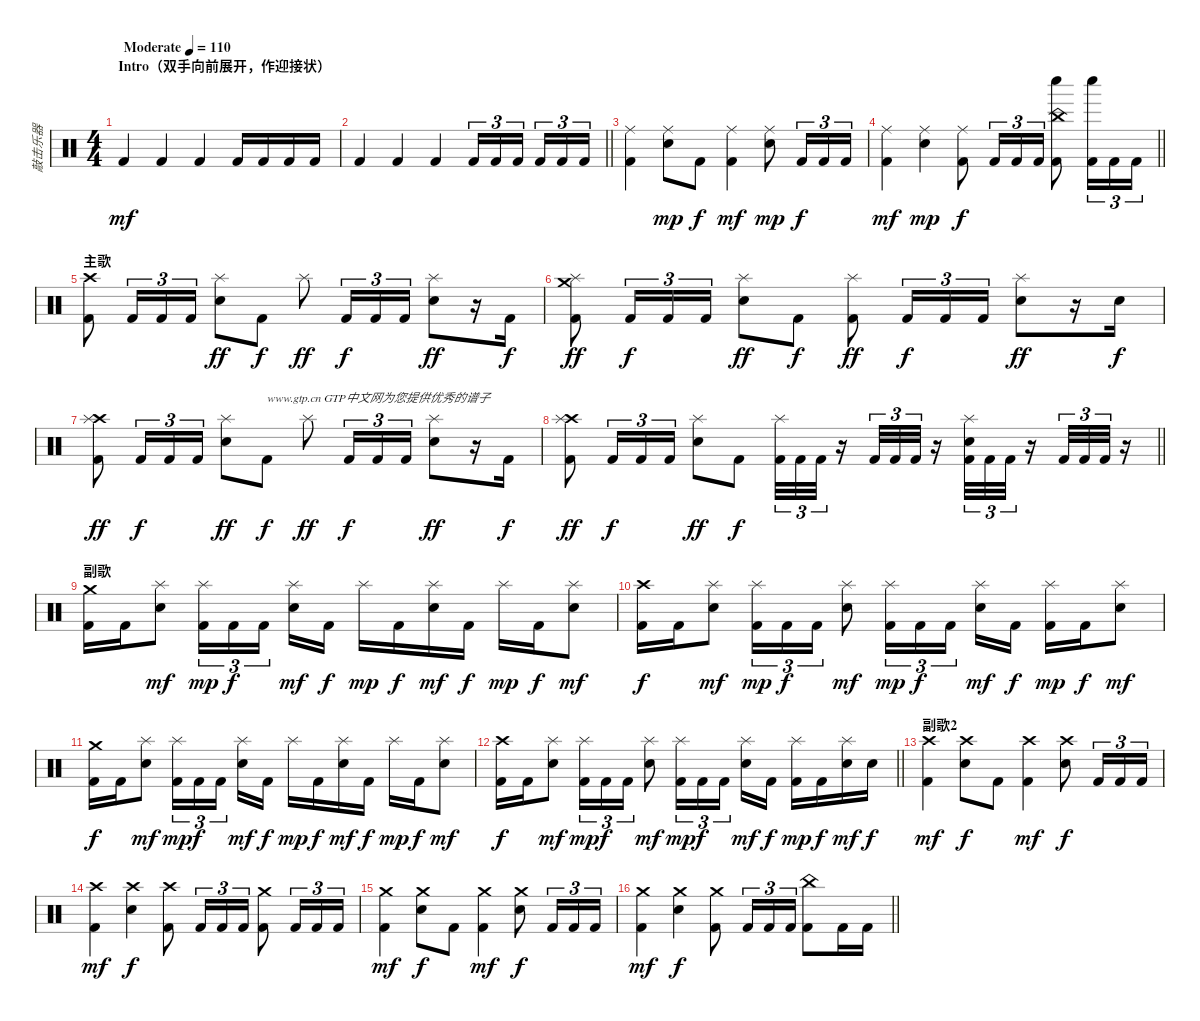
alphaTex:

\track ("敲击乐器" "敲击乐器") {instrument percussion}
\staff {score}
\articulation defaults
\ts (4 4)
\section ("" "Intro（双手向前展开，作迎接状）")
\tempo (110 "Moderate")
\clef neutral
\ks c "Kick (hit) 2".4{dy mf} "Kick (hit) 2".4 "Kick (hit) 2".4 "Kick (hit) 2".16 "Kick (hit) 2".16 "Kick (hit) 2".16 "Kick (hit) 2".16
|
\barLineRight lightlight "Kick (hit) 2".4 "Kick (hit) 2".4 "Kick (hit) 2".4 "Kick (hit) 2".16{tu (3 2)} "Kick (hit) 2".16{tu (3 2)} "Kick (hit) 2".16{tu (3 2) beam splitsecondary} "Kick (hit) 2".16{tu (3 2)} "Kick (hit) 2".16{tu (3 2)} "Kick (hit) 2".16{tu (3 2)}
|
\section ("" "")
("Ride (middle)" "Kick (hit) 2").4 ("Ride (middle)" "Snare (hit) 2").8{dy mp} "Kick (hit) 2".8{dy f} ("Ride (middle)" "Kick (hit) 2").4{dy mf} ("Ride (middle)" "Snare (hit) 2").8{dy mp} "Kick (hit) 2".16{tu (3 2) dy f} "Kick (hit) 2".16{tu (3 2)} "Kick (hit) 2".16{tu (3 2)} |
\barLineRight lightlight
("Ride (middle)" "Kick (hit) 2").4{dy mf} ("Ride (middle)" "Snare (hit) 2").4{dy mp} ("Ride (middle)" "Kick (hit) 2").8{dy f} "Kick (hit) 2".16{tu (3 2)} "Kick (hit) 2".16{tu (3 2)} "Kick (hit) 2".16{tu (3 2)} ("China (hit)" "Whistle low (hit)" "Kick (hit) 2").8 ("Whistle low (hit)" "Kick (hit) 2").16{tu (3 2)} "Kick (hit) 2".16{tu (3 2)} "Kick (hit) 2".16{tu (3 2)} |
\section ("" "主歌")
("Crash high (hit)" "Kick (hit) 2").8 "Kick (hit) 2".16{tu (3 2)} "Kick (hit) 2".16{tu (3 2)} "Kick (hit) 2".16{tu (3 2)} ("Splash (hit)" "Snare (hit) 2").8{dy ff} "Kick (hit) 2".8{dy f} "Splash (hit)".8{dy ff} "Kick (hit) 2".16{tu (3 2) dy f} "Kick (hit) 2".16{tu (3 2)} "Kick (hit) 2".16{tu (3 2)} ("Splash (hit)" "Snare (hit) 2").8{dy ff} r.16 "Kick (hit) 2".16{dy f} |
("Crash medium (hit)" "Splash (hit)" "Kick (hit) 2").8{dy ff} "Kick (hit) 2".16{tu (3 2) dy f} "Kick (hit) 2".16{tu (3 2)} "Kick (hit) 2".16{tu (3 2)} ("Splash (hit)" "Snare (hit) 2").8{dy ff} "Kick (hit) 2".8{dy f} ("Splash (hit)" "Kick (hit) 2").8{dy ff} "Kick (hit) 2".16{tu (3 2) dy f} "Kick (hit) 2".16{tu (3 2)} "Kick (hit) 2".16{tu (3 2)} ("Splash (hit)" "Snare (hit) 2").8{dy ff} r.16 "Snare (hit) 2".16{dy f} |
("Crash high (hit)" "Splash (hit)" "Kick (hit) 2").8{dy ff} "Kick (hit) 2".16{tu (3 2) dy f} "Kick (hit) 2".16{tu (3 2)} "Kick (hit) 2".16{tu (3 2)} ("Splash (hit)" "Snare (hit) 2").8{dy ff} "Kick (hit) 2".8{txt "www.gtp.cn GTP中文网为您提供优秀的谱子" dy f} "Splash (hit)".8{dy ff} "Kick (hit) 2".16{tu (3 2) dy f} "Kick (hit) 2".16{tu (3 2)} "Kick (hit) 2".16{tu (3 2)} ("Splash (hit)" "Snare (hit) 2").8{dy ff} r.16 "Kick (hit) 2".16{dy f} |
\barLineRight lightlight
("Crash high (hit)" "Splash (hit)" "Kick (hit) 2").8{dy ff} "Kick (hit) 2".16{tu (3 2) dy f} "Kick (hit) 2".16{tu (3 2)} "Kick (hit) 2".16{tu (3 2)} ("Splash (hit)" "Snare (hit) 2").8{dy ff} "Kick (hit) 2".8{dy f} ("Splash (hit)" "Kick (hit) 2").32{tu (3 2)} "Kick (hit) 2".32{tu (3 2)} "Kick (hit) 2".32{tu (3 2)} r.16 "Kick (hit) 2".32{tu (3 2)} "Kick (hit) 2".32{tu (3 2)} "Kick (hit) 2".32{tu (3 2)} r.16 ("Splash (hit)" "Snare (hit) 2" "Kick (hit) 2").32{tu (3 2)} "Kick (hit) 2".32{tu (3 2)} "Kick (hit) 2".32{tu (3 2)} r.16 "Kick (hit) 2".32{tu (3 2)} "Kick (hit) 2".32{tu (3 2)} "Kick (hit) 2".32{tu (3 2)} r.16 |
\section ("" "副歌")
("Crash medium (hit)" "Kick (hit) 2").16 "Kick (hit) 2".16 ("Splash (hit)" "Snare (hit) 2").8{dy mf} ("Splash (hit)" "Kick (hit) 2").16{tu (3 2) dy mp} "Kick (hit) 2".16{tu (3 2) dy f} "Kick (hit) 2".16{tu (3 2) beam splitsecondary} ("Splash (hit)" "Snare (hit) 2").16{dy mf} "Kick (hit) 2".16{dy f} "Splash (hit)".16{dy mp} "Kick (hit) 2".16{dy f} ("Splash (hit)" "Snare (hit) 2").16{dy mf} "Kick (hit) 2".16{dy f} "Splash (hit)".16{dy mp} "Kick (hit) 2".16{dy f} ("Splash (hit)" "Snare (hit) 2").8{dy mf} |
("Crash high (hit)" "Kick (hit) 2").16{dy f} "Kick (hit) 2".16 ("Splash (hit)" "Snare (hit) 2").8{dy mf} ("Splash (hit)" "Kick (hit) 2").16{tu (3 2) dy mp} "Kick (hit) 2".16{tu (3 2) dy f} "Kick (hit) 2".16{tu (3 2)} ("Splash (hit)" "Snare (hit) 2").8{dy mf} ("Splash (hit)" "Kick (hit) 2").16{tu (3 2) dy mp} "Kick (hit) 2".16{tu (3 2) dy f} "Kick (hit) 2".16{tu (3 2) beam splitsecondary} ("Splash (hit)" "Snare (hit) 2").16{dy mf} "Kick (hit) 2".16{dy f} ("Splash (hit)" "Kick (hit) 2").16{dy mp} "Kick (hit) 2".16{dy f} ("Splash (hit)" "Snare (hit) 2").8{dy mf} |
("Crash medium (hit)" "Kick (hit) 2").16{dy f} "Kick (hit) 2".16 ("Splash (hit)" "Snare (hit) 2").8{dy mf} ("Splash (hit)" "Kick (hit) 2").16{tu (3 2) dy mp} "Kick (hit) 2".16{tu (3 2) dy f} "Kick (hit) 2".16{tu (3 2) beam splitsecondary} ("Splash (hit)" "Snare (hit) 2").16{dy mf} "Kick (hit) 2".16{dy f} "Splash (hit)".16{dy mp} "Kick (hit) 2".16{dy f} ("Splash (hit)" "Snare (hit) 2").16{dy mf} "Kick (hit) 2".16{dy f} "Splash (hit)".16{dy mp} "Kick (hit) 2".16{dy f} ("Splash (hit)" "Snare (hit) 2").8{dy mf} |
\barLineRight lightlight
("Crash high (hit)" "Kick (hit) 2").16{dy f} "Kick (hit) 2".16 ("Splash (hit)" "Snare (hit) 2").8{dy mf} ("Splash (hit)" "Kick (hit) 2").16{tu (3 2) dy mp} "Kick (hit) 2".16{tu (3 2) dy f} "Kick (hit) 2".16{tu (3 2)} ("Splash (hit)" "Snare (hit) 2").8{dy mf} ("Splash (hit)" "Kick (hit) 2").16{tu (3 2) dy mp} "Kick (hit) 2".16{tu (3 2) dy f} "Kick (hit) 2".16{tu (3 2) beam splitsecondary} ("Splash (hit)" "Snare (hit) 2").16{dy mf} "Kick (hit) 2".16{dy f} ("Splash (hit)" "Kick (hit) 2").16{dy mp} "Kick (hit) 2".16{dy f} ("Splash (hit)" "Snare (hit) 2").16{dy mf} "Snare (hit) 2".16{dy f} |
\section ("" "副歌2")
("Crash high (hit)" "Kick (hit) 2").4{dy mf} ("Crash high (hit)" "Snare (hit) 2").8{dy f} "Kick (hit) 2".8 ("Crash high (hit)" "Kick (hit) 2").4{dy mf} ("Crash high (hit)" "Snare (hit) 2").8{dy f} "Kick (hit) 2".16{tu (3 2)} "Kick (hit) 2".16{tu (3 2)} "Kick (hit) 2".16{tu (3 2)} |
("Crash high (hit)" "Kick (hit) 2").4{dy mf} ("Crash high (hit)" "Snare (hit) 2").4{dy f} ("Crash high (hit)" "Kick (hit) 2").8 "Kick (hit) 2".16{tu (3 2)} "Kick (hit) 2".16{tu (3 2)} "Kick (hit) 2".16{tu (3 2)} ("Crash medium (hit)" "Kick (hit) 2").8 "Kick (hit) 2".16{tu (3 2)} "Kick (hit) 2".16{tu (3 2)} "Kick (hit) 2".16{tu (3 2)} |
("Crash medium (hit)" "Kick (hit) 2").4{dy mf} ("Crash medium (hit)" "Snare (hit) 2").8{dy f} "Kick (hit) 2".8 ("Crash medium (hit)" "Kick (hit) 2").4{dy mf} ("Crash medium (hit)" "Snare (hit) 2").8{dy f} "Kick (hit) 2".16{tu (3 2)} "Kick (hit) 2".16{tu (3 2)} "Kick (hit) 2".16{tu (3 2)} |
\barLineRight lightlight
("Crash medium (hit)" "Kick (hit) 2").4{dy mf} ("Crash medium (hit)" "Snare (hit) 2").4{dy f} ("Crash medium (hit)" "Kick (hit) 2").8 "Kick (hit) 2".16{tu (3 2)} "Kick (hit) 2".16{tu (3 2)} "Kick (hit) 2".16{tu (3 2)} ("China (hit)" "Kick (hit) 2").8 "Kick (hit) 2".16 "Kick (hit) 2".16
